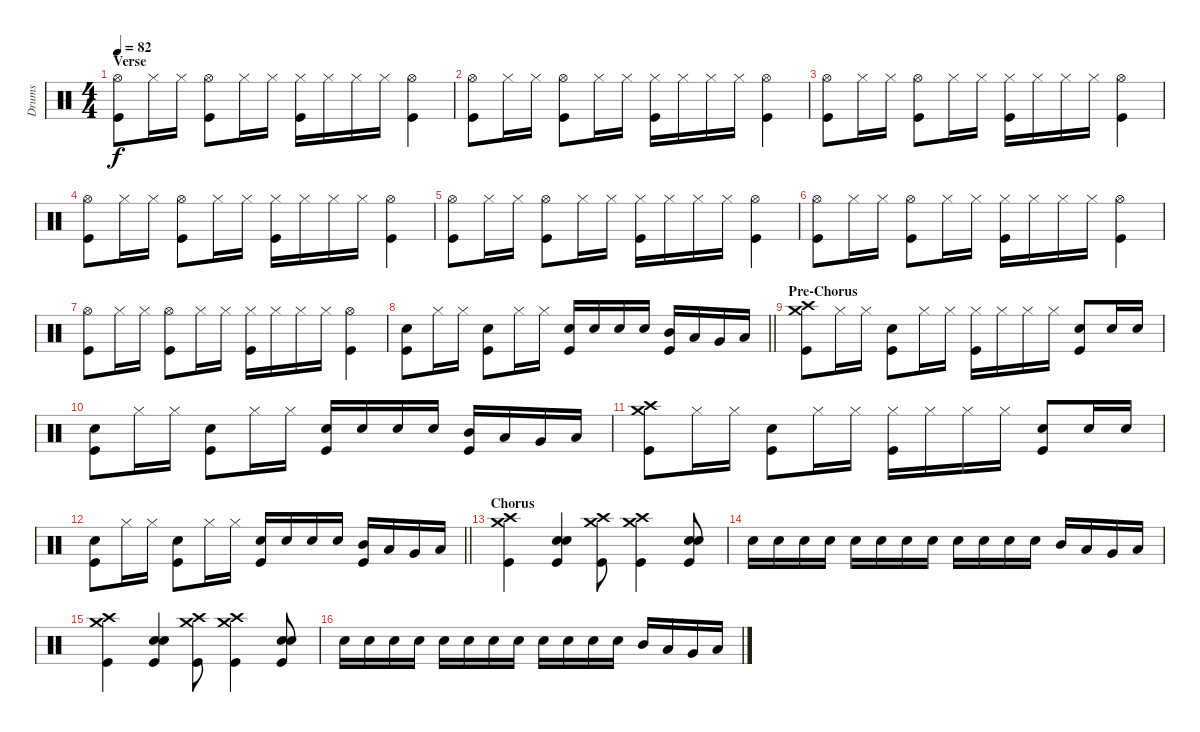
\track ("Drums" "Drums") {instrument percussion}
\staff {score}
\articulation defaults
\ts (4 4)
\section ("" "Verse")
\tempo 82
\clef neutral
\ks c
("Hi-Hat (open)" "Kick (hit)").8{dy f} "Hi-Hat (closed)".16 "Hi-Hat (closed)".16 ("Hi-Hat (open)" "Kick (hit)").8 "Hi-Hat (closed)".16 "Hi-Hat (closed)".16 ("Hi-Hat (closed)" "Kick (hit)").16 "Hi-Hat (closed)".16 "Hi-Hat (closed)".16 "Hi-Hat (closed)".16 ("Hi-Hat (open)" "Kick (hit)").4 |
("Hi-Hat (open)" "Kick (hit)").8 "Hi-Hat (closed)".16 "Hi-Hat (closed)".16 ("Hi-Hat (open)" "Kick (hit)").8 "Hi-Hat (closed)".16 "Hi-Hat (closed)".16 ("Hi-Hat (closed)" "Kick (hit)").16 "Hi-Hat (closed)".16 "Hi-Hat (closed)".16 "Hi-Hat (closed)".16 ("Hi-Hat (open)" "Kick (hit)").4 |
("Hi-Hat (open)" "Kick (hit)").8 "Hi-Hat (closed)".16 "Hi-Hat (closed)".16 ("Hi-Hat (open)" "Kick (hit)").8 "Hi-Hat (closed)".16 "Hi-Hat (closed)".16 ("Hi-Hat (closed)" "Kick (hit)").16 "Hi-Hat (closed)".16 "Hi-Hat (closed)".16 "Hi-Hat (closed)".16 ("Hi-Hat (open)" "Kick (hit)").4 |
("Hi-Hat (open)" "Kick (hit)").8 "Hi-Hat (closed)".16 "Hi-Hat (closed)".16 ("Hi-Hat (open)" "Kick (hit)").8 "Hi-Hat (closed)".16 "Hi-Hat (closed)".16 ("Hi-Hat (closed)" "Kick (hit)").16 "Hi-Hat (closed)".16 "Hi-Hat (closed)".16 "Hi-Hat (closed)".16 ("Hi-Hat (open)" "Kick (hit)").4 |
("Hi-Hat (open)" "Kick (hit)").8 "Hi-Hat (closed)".16 "Hi-Hat (closed)".16 ("Hi-Hat (open)" "Kick (hit)").8 "Hi-Hat (closed)".16 "Hi-Hat (closed)".16 ("Hi-Hat (closed)" "Kick (hit)").16 "Hi-Hat (closed)".16 "Hi-Hat (closed)".16 "Hi-Hat (closed)".16 ("Hi-Hat (open)" "Kick (hit)").4 |
("Hi-Hat (open)" "Kick (hit)").8 "Hi-Hat (closed)".16 "Hi-Hat (closed)".16 ("Hi-Hat (open)" "Kick (hit)").8 "Hi-Hat (closed)".16 "Hi-Hat (closed)".16 ("Hi-Hat (closed)" "Kick (hit)").16 "Hi-Hat (closed)".16 "Hi-Hat (closed)".16 "Hi-Hat (closed)".16 ("Hi-Hat (open)" "Kick (hit)").4 |
("Hi-Hat (open)" "Kick (hit)").8 "Hi-Hat (closed)".16 "Hi-Hat (closed)".16 ("Hi-Hat (open)" "Kick (hit)").8 "Hi-Hat (closed)".16 "Hi-Hat (closed)".16 ("Hi-Hat (closed)" "Kick (hit)").16 "Hi-Hat (closed)".16 "Hi-Hat (closed)".16 "Hi-Hat (closed)".16 ("Hi-Hat (open)" "Kick (hit)").4 |
\barLineRight lightlight
("Snare (hit) 2" "Kick (hit)").8 "Hi-Hat (closed)".16 "Hi-Hat (closed)".16 ("Snare (hit) 2" "Kick (hit)").8 "Hi-Hat (closed)".16 "Hi-Hat (closed)".16 ("Snare (hit) 2" "Kick (hit)").16 "Snare (hit) 2".16 "Snare (hit) 2".16 "Snare (hit) 2".16 ("Mid Tom (hit)" "Kick (hit)").16 "Low Tom (hit)".16 "Very Low Tom (hit)".16 "Low Floor Tom (hit)".16 |
\section ("" "Pre-Chorus")
("Crash medium (hit)" "Crash high (hit)" "Kick (hit)").8 "Hi-Hat (closed)".16 "Hi-Hat (closed)".16 ("Snare (hit) 2" "Kick (hit)").8 "Hi-Hat (closed)".16 "Hi-Hat (closed)".16 ("Hi-Hat (closed)" "Kick (hit)").16 "Hi-Hat (closed)".16 "Hi-Hat (closed)".16 "Hi-Hat (closed)".16 ("Snare (hit) 2" "Kick (hit)").8 "Snare (hit) 2".16 "Snare (hit) 2".16 |
("Snare (hit) 2" "Kick (hit)").8 "Hi-Hat (closed)".16 "Hi-Hat (closed)".16 ("Snare (hit) 2" "Kick (hit)").8 "Hi-Hat (closed)".16 "Hi-Hat (closed)".16 ("Snare (hit) 2" "Kick (hit)").16 "Snare (hit) 2".16 "Snare (hit) 2".16 "Snare (hit) 2".16 ("Mid Tom (hit)" "Kick (hit)").16 "Low Tom (hit)".16 "Very Low Tom (hit)".16 "Low Floor Tom (hit)".16 |
("Crash medium (hit)" "Crash high (hit)" "Kick (hit)").8 "Hi-Hat (closed)".16 "Hi-Hat (closed)".16 ("Snare (hit) 2" "Kick (hit)").8 "Hi-Hat (closed)".16 "Hi-Hat (closed)".16 ("Hi-Hat (closed)" "Kick (hit)").16 "Hi-Hat (closed)".16 "Hi-Hat (closed)".16 "Hi-Hat (closed)".16 ("Snare (hit) 2" "Kick (hit)").8 "Snare (hit) 2".16 "Snare (hit) 2".16 |
\barLineRight lightlight
("Snare (hit) 2" "Kick (hit)").8 "Hi-Hat (closed)".16 "Hi-Hat (closed)".16 ("Snare (hit) 2" "Kick (hit)").8 "Hi-Hat (closed)".16 "Hi-Hat (closed)".16 ("Snare (hit) 2" "Kick (hit)").16 "Snare (hit) 2".16 "Snare (hit) 2".16 "Snare (hit) 2".16 ("Mid Tom (hit)" "Kick (hit)").16 "Low Tom (hit)".16 "Very Low Tom (hit)".16 "Low Floor Tom (hit)".16 |
\section ("" "Chorus")
("Crash medium (hit)" "Crash high (hit)" "Kick (hit)").4 ("Snare (hit) 2" "Snare (hit) 2" "Kick (hit)").4 ("Crash medium (hit)" "Crash high (hit)" "Kick (hit)").8 ("Crash medium (hit)" "Crash high (hit)" "Kick (hit)").4 ("Snare (hit) 2" "Snare (hit) 2" "Kick (hit)").8 |
"Snare (hit) 2".16 "Snare (hit) 2".16 "Snare (hit) 2".16 "Snare (hit) 2".16 "Snare (hit) 2".16 "Snare (hit) 2".16 "Snare (hit) 2".16 "Snare (hit) 2".16 "Snare (hit) 2".16 "Snare (hit) 2".16 "Snare (hit) 2".16 "Snare (hit) 2".16 "Mid Tom (hit)".16 "Low Tom (hit)".16 "Very Low Tom (hit)".16 "Low Floor Tom (hit)".16 |
("Crash medium (hit)" "Crash high (hit)" "Kick (hit)").4 ("Snare (hit) 2" "Snare (hit) 2" "Kick (hit)").4 ("Crash medium (hit)" "Crash high (hit)" "Kick (hit)").8 ("Crash medium (hit)" "Crash high (hit)" "Kick (hit)").4 ("Snare (hit) 2" "Snare (hit) 2" "Kick (hit)").8 |
"Snare (hit) 2".16 "Snare (hit) 2".16 "Snare (hit) 2".16 "Snare (hit) 2".16 "Snare (hit) 2".16 "Snare (hit) 2".16 "Snare (hit) 2".16 "Snare (hit) 2".16 "Snare (hit) 2".16 "Snare (hit) 2".16 "Snare (hit) 2".16 "Snare (hit) 2".16 "Mid Tom (hit)".16 "Low Tom (hit)".16 "Very Low Tom (hit)".16 "Low Floor Tom (hit)".16
